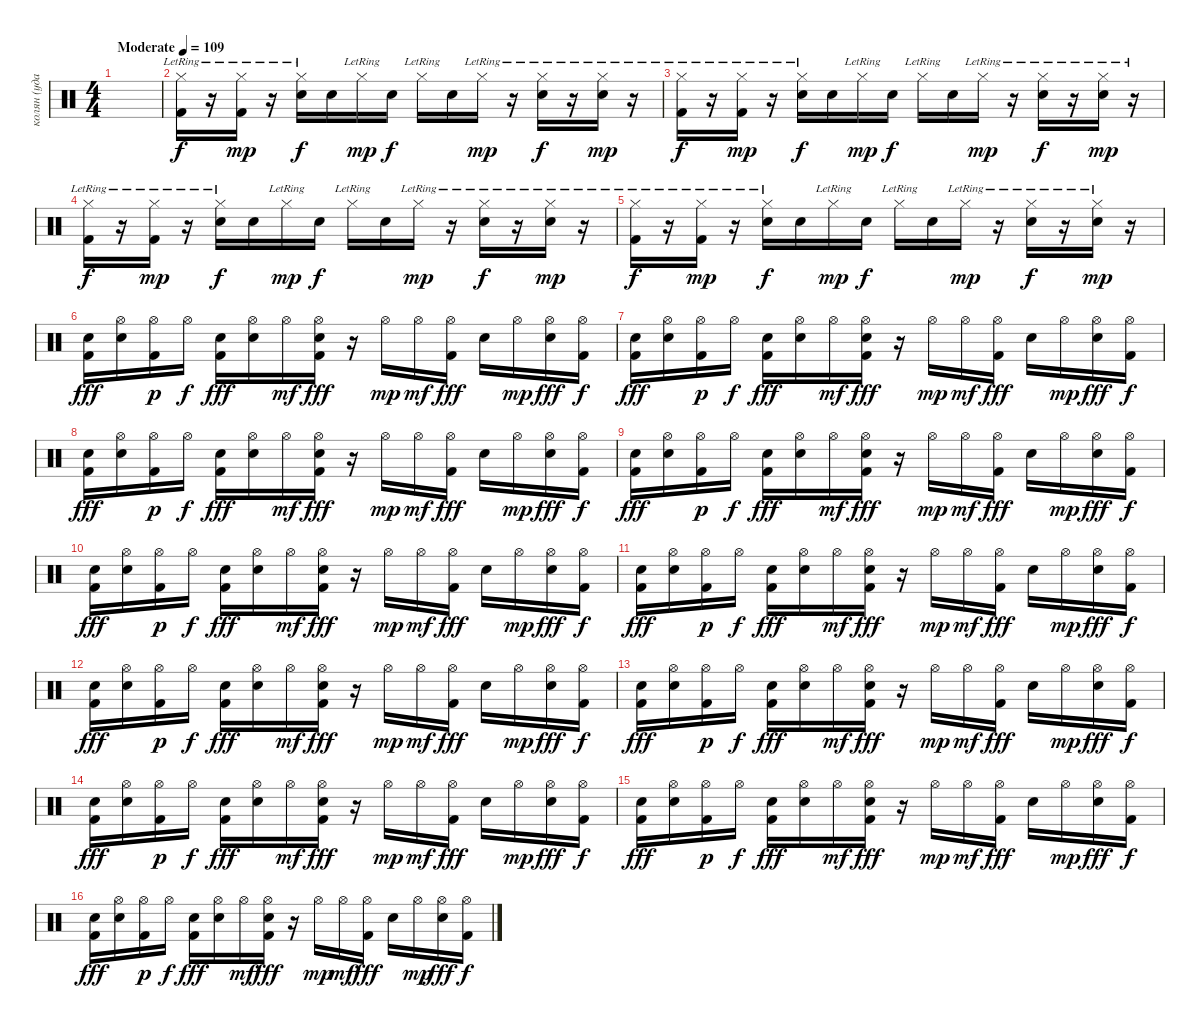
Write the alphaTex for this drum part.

\track ("колян (ударные)" "колян (уда") {instrument percussion}
\staff
\articulation defaults
\ts (4 4)
\tempo (109 "Moderate")
\clef neutral
\ks c
|
("Hi-Hat (closed)"{lr} "Kick (hit) 2").16 r.16 ("Hi-Hat (closed)"{lr} "Kick (hit) 2").16{dy mp} r.16 ("Hi-Hat (closed)"{lr} "Electric Snare (hit)").16{dy f} "Electric Snare (hit)".16 "Hi-Hat (closed)"{lr}.16{dy mp} "Electric Snare (hit)".16{dy f} "Hi-Hat (closed)"{lr}.16 "Electric Snare (hit)".16 "Hi-Hat (closed)"{lr}.16{dy mp} r.16 ("Hi-Hat (closed)"{lr} "Electric Snare (hit)").16{dy f} r.16 ("Hi-Hat (closed)"{lr} "Electric Snare (hit)").16{dy mp} r.16 |
("Hi-Hat (closed)"{lr} "Kick (hit) 2").16{dy f} r.16 ("Hi-Hat (closed)"{lr} "Kick (hit) 2").16{dy mp} r.16 ("Hi-Hat (closed)"{lr} "Electric Snare (hit)").16{dy f} "Electric Snare (hit)".16 "Hi-Hat (closed)"{lr}.16{dy mp} "Electric Snare (hit)".16{dy f} "Hi-Hat (closed)"{lr}.16 "Electric Snare (hit)".16 "Hi-Hat (closed)"{lr}.16{dy mp} r.16 ("Hi-Hat (closed)"{lr} "Electric Snare (hit)").16{dy f} r.16 ("Hi-Hat (closed)"{lr} "Electric Snare (hit)").16{dy mp} r.16 |
("Hi-Hat (closed)"{lr} "Kick (hit) 2").16{dy f} r.16 ("Hi-Hat (closed)"{lr} "Kick (hit) 2").16{dy mp} r.16 ("Hi-Hat (closed)"{lr} "Electric Snare (hit)").16{dy f} "Electric Snare (hit)".16 "Hi-Hat (closed)"{lr}.16{dy mp} "Electric Snare (hit)".16{dy f} "Hi-Hat (closed)"{lr}.16 "Electric Snare (hit)".16 "Hi-Hat (closed)"{lr}.16{dy mp} r.16 ("Hi-Hat (closed)"{lr} "Electric Snare (hit)").16{dy f} r.16 ("Hi-Hat (closed)"{lr} "Electric Snare (hit)").16{dy mp} r.16 |
("Hi-Hat (closed)"{lr} "Kick (hit) 2").16{dy f} r.16 ("Hi-Hat (closed)"{lr} "Kick (hit) 2").16{dy mp} r.16 ("Hi-Hat (closed)"{lr} "Electric Snare (hit)").16{dy f} "Electric Snare (hit)".16 "Hi-Hat (closed)"{lr}.16{dy mp} "Electric Snare (hit)".16{dy f} "Hi-Hat (closed)"{lr}.16 "Electric Snare (hit)".16 "Hi-Hat (closed)"{lr}.16{dy mp} r.16 ("Hi-Hat (closed)"{lr} "Electric Snare (hit)").16{dy f} r.16 ("Hi-Hat (closed)"{lr} "Electric Snare (hit)").16{dy mp} r.16 |
("Snare (hit) 2" "Kick (hit) 2").16{dy fff} ("Hi-Hat (open)" "Snare (hit) 2").16 ("Hi-Hat (open)" "Kick (hit) 2").16{dy p} "Hi-Hat (open)".16{dy f} ("Snare (hit) 2" "Kick (hit) 2").16{dy fff} ("Hi-Hat (open)" "Snare (hit) 2").16 "Hi-Hat (open)".16{dy mf} ("Hi-Hat (open)" "Snare (hit) 2" "Kick (hit) 2").16{dy fff} r.16 "Hi-Hat (open)".16{dy mp} "Hi-Hat (open)".16{dy mf} ("Hi-Hat (open)" "Kick (hit) 2").16{dy fff} "Snare (hit) 2".16 "Hi-Hat (open)".16{dy mp} ("Hi-Hat (open)" "Snare (hit) 2").16{dy fff} ("Hi-Hat (open)" "Kick (hit) 2").16{dy f} |
("Snare (hit) 2" "Kick (hit) 2").16{dy fff} ("Hi-Hat (open)" "Snare (hit) 2").16 ("Hi-Hat (open)" "Kick (hit) 2").16{dy p} "Hi-Hat (open)".16{dy f} ("Snare (hit) 2" "Kick (hit) 2").16{dy fff} ("Hi-Hat (open)" "Snare (hit) 2").16 "Hi-Hat (open)".16{dy mf} ("Hi-Hat (open)" "Snare (hit) 2" "Kick (hit) 2").16{dy fff} r.16 "Hi-Hat (open)".16{dy mp} "Hi-Hat (open)".16{dy mf} ("Hi-Hat (open)" "Kick (hit) 2").16{dy fff} "Snare (hit) 2".16 "Hi-Hat (open)".16{dy mp} ("Hi-Hat (open)" "Snare (hit) 2").16{dy fff} ("Hi-Hat (open)" "Kick (hit) 2").16{dy f} |
("Snare (hit) 2" "Kick (hit) 2").16{dy fff} ("Hi-Hat (open)" "Snare (hit) 2").16 ("Hi-Hat (open)" "Kick (hit) 2").16{dy p} "Hi-Hat (open)".16{dy f} ("Snare (hit) 2" "Kick (hit) 2").16{dy fff} ("Hi-Hat (open)" "Snare (hit) 2").16 "Hi-Hat (open)".16{dy mf} ("Hi-Hat (open)" "Snare (hit) 2" "Kick (hit) 2").16{dy fff} r.16 "Hi-Hat (open)".16{dy mp} "Hi-Hat (open)".16{dy mf} ("Hi-Hat (open)" "Kick (hit) 2").16{dy fff} "Snare (hit) 2".16 "Hi-Hat (open)".16{dy mp} ("Hi-Hat (open)" "Snare (hit) 2").16{dy fff} ("Hi-Hat (open)" "Kick (hit) 2").16{dy f} |
("Snare (hit) 2" "Kick (hit) 2").16{dy fff} ("Hi-Hat (open)" "Snare (hit) 2").16 ("Hi-Hat (open)" "Kick (hit) 2").16{dy p} "Hi-Hat (open)".16{dy f} ("Snare (hit) 2" "Kick (hit) 2").16{dy fff} ("Hi-Hat (open)" "Snare (hit) 2").16 "Hi-Hat (open)".16{dy mf} ("Hi-Hat (open)" "Snare (hit) 2" "Kick (hit) 2").16{dy fff} r.16 "Hi-Hat (open)".16{dy mp} "Hi-Hat (open)".16{dy mf} ("Hi-Hat (open)" "Kick (hit) 2").16{dy fff} "Snare (hit) 2".16 "Hi-Hat (open)".16{dy mp} ("Hi-Hat (open)" "Snare (hit) 2").16{dy fff} ("Hi-Hat (open)" "Kick (hit) 2").16{dy f} |
("Snare (hit) 2" "Kick (hit) 2").16{dy fff} ("Hi-Hat (open)" "Snare (hit) 2").16 ("Hi-Hat (open)" "Kick (hit) 2").16{dy p} "Hi-Hat (open)".16{dy f} ("Snare (hit) 2" "Kick (hit) 2").16{dy fff} ("Hi-Hat (open)" "Snare (hit) 2").16 "Hi-Hat (open)".16{dy mf} ("Hi-Hat (open)" "Snare (hit) 2" "Kick (hit) 2").16{dy fff} r.16 "Hi-Hat (open)".16{dy mp} "Hi-Hat (open)".16{dy mf} ("Hi-Hat (open)" "Kick (hit) 2").16{dy fff} "Snare (hit) 2".16 "Hi-Hat (open)".16{dy mp} ("Hi-Hat (open)" "Snare (hit) 2").16{dy fff} ("Hi-Hat (open)" "Kick (hit) 2").16{dy f} |
("Snare (hit) 2" "Kick (hit) 2").16{dy fff} ("Hi-Hat (open)" "Snare (hit) 2").16 ("Hi-Hat (open)" "Kick (hit) 2").16{dy p} "Hi-Hat (open)".16{dy f} ("Snare (hit) 2" "Kick (hit) 2").16{dy fff} ("Hi-Hat (open)" "Snare (hit) 2").16 "Hi-Hat (open)".16{dy mf} ("Hi-Hat (open)" "Snare (hit) 2" "Kick (hit) 2").16{dy fff} r.16 "Hi-Hat (open)".16{dy mp} "Hi-Hat (open)".16{dy mf} ("Hi-Hat (open)" "Kick (hit) 2").16{dy fff} "Snare (hit) 2".16 "Hi-Hat (open)".16{dy mp} ("Hi-Hat (open)" "Snare (hit) 2").16{dy fff} ("Hi-Hat (open)" "Kick (hit) 2").16{dy f} |
("Snare (hit) 2" "Kick (hit) 2").16{dy fff} ("Hi-Hat (open)" "Snare (hit) 2").16 ("Hi-Hat (open)" "Kick (hit) 2").16{dy p} "Hi-Hat (open)".16{dy f} ("Snare (hit) 2" "Kick (hit) 2").16{dy fff} ("Hi-Hat (open)" "Snare (hit) 2").16 "Hi-Hat (open)".16{dy mf} ("Hi-Hat (open)" "Snare (hit) 2" "Kick (hit) 2").16{dy fff} r.16 "Hi-Hat (open)".16{dy mp} "Hi-Hat (open)".16{dy mf} ("Hi-Hat (open)" "Kick (hit) 2").16{dy fff} "Snare (hit) 2".16 "Hi-Hat (open)".16{dy mp} ("Hi-Hat (open)" "Snare (hit) 2").16{dy fff} ("Hi-Hat (open)" "Kick (hit) 2").16{dy f} |
("Snare (hit) 2" "Kick (hit) 2").16{dy fff} ("Hi-Hat (open)" "Snare (hit) 2").16 ("Hi-Hat (open)" "Kick (hit) 2").16{dy p} "Hi-Hat (open)".16{dy f} ("Snare (hit) 2" "Kick (hit) 2").16{dy fff} ("Hi-Hat (open)" "Snare (hit) 2").16 "Hi-Hat (open)".16{dy mf} ("Hi-Hat (open)" "Snare (hit) 2" "Kick (hit) 2").16{dy fff} r.16 "Hi-Hat (open)".16{dy mp} "Hi-Hat (open)".16{dy mf} ("Hi-Hat (open)" "Kick (hit) 2").16{dy fff} "Snare (hit) 2".16 "Hi-Hat (open)".16{dy mp} ("Hi-Hat (open)" "Snare (hit) 2").16{dy fff} ("Hi-Hat (open)" "Kick (hit) 2").16{dy f} |
("Snare (hit) 2" "Kick (hit) 2").16{dy fff} ("Hi-Hat (open)" "Snare (hit) 2").16 ("Hi-Hat (open)" "Kick (hit) 2").16{dy p} "Hi-Hat (open)".16{dy f} ("Snare (hit) 2" "Kick (hit) 2").16{dy fff} ("Hi-Hat (open)" "Snare (hit) 2").16 "Hi-Hat (open)".16{dy mf} ("Hi-Hat (open)" "Snare (hit) 2" "Kick (hit) 2").16{dy fff} r.16 "Hi-Hat (open)".16{dy mp} "Hi-Hat (open)".16{dy mf} ("Hi-Hat (open)" "Kick (hit) 2").16{dy fff} "Snare (hit) 2".16 "Hi-Hat (open)".16{dy mp} ("Hi-Hat (open)" "Snare (hit) 2").16{dy fff} ("Hi-Hat (open)" "Kick (hit) 2").16{dy f} |
("Snare (hit) 2" "Kick (hit) 2").16{dy fff} ("Hi-Hat (open)" "Snare (hit) 2").16 ("Hi-Hat (open)" "Kick (hit) 2").16{dy p} "Hi-Hat (open)".16{dy f} ("Snare (hit) 2" "Kick (hit) 2").16{dy fff} ("Hi-Hat (open)" "Snare (hit) 2").16 "Hi-Hat (open)".16{dy mf} ("Hi-Hat (open)" "Snare (hit) 2" "Kick (hit) 2").16{dy fff} r.16 "Hi-Hat (open)".16{dy mp} "Hi-Hat (open)".16{dy mf} ("Hi-Hat (open)" "Kick (hit) 2").16{dy fff} "Snare (hit) 2".16 "Hi-Hat (open)".16{dy mp} ("Hi-Hat (open)" "Snare (hit) 2").16{dy fff} ("Hi-Hat (open)" "Kick (hit) 2").16{dy f} |
("Snare (hit) 2" "Kick (hit) 2").16{dy fff} ("Hi-Hat (open)" "Snare (hit) 2").16 ("Hi-Hat (open)" "Kick (hit) 2").16{dy p} "Hi-Hat (open)".16{dy f} ("Snare (hit) 2" "Kick (hit) 2").16{dy fff} ("Hi-Hat (open)" "Snare (hit) 2").16 "Hi-Hat (open)".16{dy mf} ("Hi-Hat (open)" "Snare (hit) 2" "Kick (hit) 2").16{dy fff} r.16 "Hi-Hat (open)".16{dy mp} "Hi-Hat (open)".16{dy mf} ("Hi-Hat (open)" "Kick (hit) 2").16{dy fff} "Snare (hit) 2".16 "Hi-Hat (open)".16{dy mp} ("Hi-Hat (open)" "Snare (hit) 2").16{dy fff} ("Hi-Hat (open)" "Kick (hit) 2").16{dy f}
